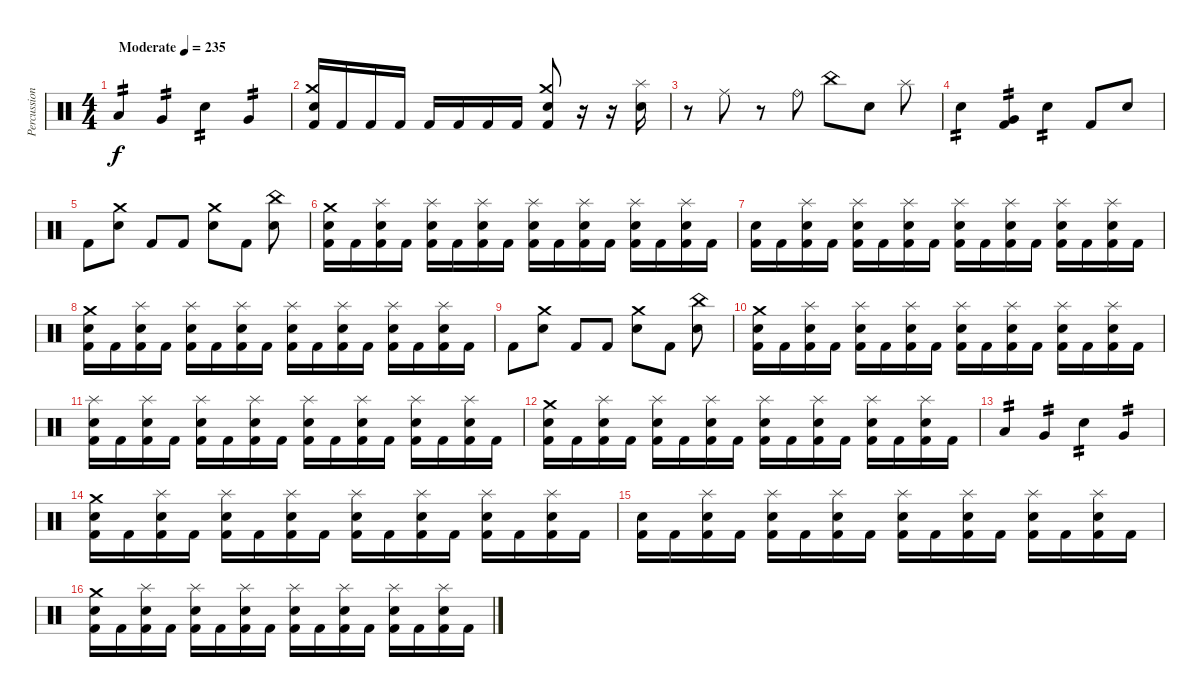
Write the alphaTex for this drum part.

\track ("Percussion" "Percussion") {instrument percussion}
\staff {score}
\articulation defaults
\ts (4 4)
\tempo (235 "Moderate")
\clef neutral
\ks c "Low Tom (hit)".4{tp 2 dy f} "Very Low Tom (hit)".4{tp 2} "Snare (hit) 2".4{tp 2} "Very Low Tom (hit)".4{tp 2}
|
("Crash medium (hit)" "Kick (hit) 2" "Snare (hit) 2").16 "Kick (hit) 2".16 "Kick (hit) 2".16 "Kick (hit) 2".16 "Kick (hit) 2".16 "Kick (hit) 2".16 "Kick (hit) 2".16 "Kick (hit) 2".16 ("Crash medium (hit)" "Snare (hit) 2" "Kick (hit) 2").8 r.16 r.16 ("Snare (hit) 2" "Splash (hit)").16 |
r.8 "Ride (middle)".8 r.8 "Ride (bell)".8 "China (hit)".8 "Snare (hit)".8 "Splash (hit)".8 |
"Snare (hit) 2".4{tp 2} ("Very Low Tom (hit)" "Kick (hit) 2").4{tp 2} "Snare (hit) 2".4{tp 2} "Kick (hit) 2".8 "Snare (hit) 2".8 |
"Kick (hit) 2".8 ("Crash medium (hit)" "Snare (hit) 2").8 "Kick (hit) 2".8 "Kick (hit) 2".8 ("Crash medium (hit)" "Snare (hit) 2").8 "Kick (hit) 2".8 ("China (hit)" "Snare (hit) 2").8 |
("Crash medium (hit)" "Snare (hit) 2" "Kick (hit) 2").16 "Kick (hit) 2".16 ("Splash (hit)" "Snare (hit) 2" "Kick (hit) 2").16 "Kick (hit) 2".16 ("Splash (hit)" "Snare (hit) 2" "Kick (hit) 2").16 "Kick (hit) 2".16 ("Splash (hit)" "Snare (hit) 2" "Kick (hit) 2").16 "Kick (hit) 2".16 ("Splash (hit)" "Snare (hit) 2" "Kick (hit) 2").16 "Kick (hit) 2".16 ("Splash (hit)" "Snare (hit) 2" "Kick (hit) 2").16 "Kick (hit) 2".16 ("Splash (hit)" "Snare (hit) 2" "Kick (hit) 2").16 "Kick (hit) 2".16 ("Splash (hit)" "Snare (hit) 2" "Kick (hit) 2").16 "Kick (hit) 2".16 |
("Snare (hit) 2" "Kick (hit) 2").16 "Kick (hit) 2".16 ("Splash (hit)" "Snare (hit) 2" "Kick (hit) 2").16 "Kick (hit) 2".16 ("Splash (hit)" "Snare (hit) 2" "Kick (hit) 2").16 "Kick (hit) 2".16 ("Splash (hit)" "Snare (hit) 2" "Kick (hit) 2").16 "Kick (hit) 2".16 ("Splash (hit)" "Snare (hit) 2" "Kick (hit) 2").16 "Kick (hit) 2".16 ("Splash (hit)" "Snare (hit) 2" "Kick (hit) 2").16 "Kick (hit) 2".16 ("Splash (hit)" "Snare (hit) 2" "Kick (hit) 2").16 "Kick (hit) 2".16 ("Splash (hit)" "Snare (hit) 2" "Kick (hit) 2").16 "Kick (hit) 2".16 |
("Crash medium (hit)" "Snare (hit) 2" "Kick (hit) 2").16 "Kick (hit) 2".16 ("Splash (hit)" "Snare (hit) 2" "Kick (hit) 2").16 "Kick (hit) 2".16 ("Splash (hit)" "Snare (hit) 2" "Kick (hit) 2").16 "Kick (hit) 2".16 ("Splash (hit)" "Snare (hit) 2" "Kick (hit) 2").16 "Kick (hit) 2".16 ("Splash (hit)" "Snare (hit) 2" "Kick (hit) 2").16 "Kick (hit) 2".16 ("Splash (hit)" "Snare (hit) 2" "Kick (hit) 2").16 "Kick (hit) 2".16 ("Splash (hit)" "Snare (hit) 2" "Kick (hit) 2").16 "Kick (hit) 2".16 ("Splash (hit)" "Snare (hit) 2" "Kick (hit) 2").16 "Kick (hit) 2".16 |
"Kick (hit) 2".8 ("Crash medium (hit)" "Snare (hit) 2").8 "Kick (hit) 2".8 "Kick (hit) 2".8 ("Crash medium (hit)" "Snare (hit) 2").8 "Kick (hit) 2".8 ("China (hit)" "Snare (hit) 2").8 |
("Crash medium (hit)" "Snare (hit) 2" "Kick (hit) 2").16 "Kick (hit) 2".16 ("Splash (hit)" "Snare (hit) 2" "Kick (hit) 2").16 "Kick (hit) 2".16 ("Splash (hit)" "Snare (hit) 2" "Kick (hit) 2").16 "Kick (hit) 2".16 ("Splash (hit)" "Snare (hit) 2" "Kick (hit) 2").16 "Kick (hit) 2".16 ("Splash (hit)" "Snare (hit) 2" "Kick (hit) 2").16 "Kick (hit) 2".16 ("Splash (hit)" "Snare (hit) 2" "Kick (hit) 2").16 "Kick (hit) 2".16 ("Splash (hit)" "Snare (hit) 2" "Kick (hit) 2").16 "Kick (hit) 2".16 ("Splash (hit)" "Snare (hit) 2" "Kick (hit) 2").16 "Kick (hit) 2".16 |
("Splash (hit)" "Snare (hit) 2" "Kick (hit) 2").16 "Kick (hit) 2".16 ("Splash (hit)" "Snare (hit) 2" "Kick (hit) 2").16 "Kick (hit) 2".16 ("Splash (hit)" "Snare (hit) 2" "Kick (hit) 2").16 "Kick (hit) 2".16 ("Splash (hit)" "Snare (hit) 2" "Kick (hit) 2").16 "Kick (hit) 2".16 ("Splash (hit)" "Snare (hit) 2" "Kick (hit) 2").16 "Kick (hit) 2".16 ("Splash (hit)" "Snare (hit) 2" "Kick (hit) 2").16 "Kick (hit) 2".16 ("Splash (hit)" "Snare (hit) 2" "Kick (hit) 2").16 "Kick (hit) 2".16 ("Splash (hit)" "Snare (hit) 2" "Kick (hit) 2").16 "Kick (hit) 2".16 |
("Crash medium (hit)" "Snare (hit) 2" "Kick (hit) 2").16 "Kick (hit) 2".16 ("Splash (hit)" "Snare (hit) 2" "Kick (hit) 2").16 "Kick (hit) 2".16 ("Splash (hit)" "Snare (hit) 2" "Kick (hit) 2").16 "Kick (hit) 2".16 ("Splash (hit)" "Snare (hit) 2" "Kick (hit) 2").16 "Kick (hit) 2".16 ("Splash (hit)" "Snare (hit) 2" "Kick (hit) 2").16 "Kick (hit) 2".16 ("Splash (hit)" "Snare (hit) 2" "Kick (hit) 2").16 "Kick (hit) 2".16 ("Splash (hit)" "Snare (hit) 2" "Kick (hit) 2").16 "Kick (hit) 2".16 ("Splash (hit)" "Snare (hit) 2" "Kick (hit) 2").16 "Kick (hit) 2".16 |
"Low Tom (hit)".4{tp 2} "Very Low Tom (hit)".4{tp 2} "Snare (hit) 2".4{tp 2} "Very Low Tom (hit)".4{tp 2} |
("Crash medium (hit)" "Snare (hit) 2" "Kick (hit) 2").16 "Kick (hit) 2".16 ("Splash (hit)" "Snare (hit) 2" "Kick (hit) 2").16 "Kick (hit) 2".16 ("Splash (hit)" "Snare (hit) 2" "Kick (hit) 2").16 "Kick (hit) 2".16 ("Splash (hit)" "Snare (hit) 2" "Kick (hit) 2").16 "Kick (hit) 2".16 ("Splash (hit)" "Snare (hit) 2" "Kick (hit) 2").16 "Kick (hit) 2".16 ("Splash (hit)" "Snare (hit) 2" "Kick (hit) 2").16 "Kick (hit) 2".16 ("Splash (hit)" "Snare (hit) 2" "Kick (hit) 2").16 "Kick (hit) 2".16 ("Splash (hit)" "Snare (hit) 2" "Kick (hit) 2").16 "Kick (hit) 2".16 |
("Snare (hit) 2" "Kick (hit) 2").16 "Kick (hit) 2".16 ("Splash (hit)" "Snare (hit) 2" "Kick (hit) 2").16 "Kick (hit) 2".16 ("Splash (hit)" "Snare (hit) 2" "Kick (hit) 2").16 "Kick (hit) 2".16 ("Splash (hit)" "Snare (hit) 2" "Kick (hit) 2").16 "Kick (hit) 2".16 ("Splash (hit)" "Snare (hit) 2" "Kick (hit) 2").16 "Kick (hit) 2".16 ("Splash (hit)" "Snare (hit) 2" "Kick (hit) 2").16 "Kick (hit) 2".16 ("Splash (hit)" "Snare (hit) 2" "Kick (hit) 2").16 "Kick (hit) 2".16 ("Splash (hit)" "Snare (hit) 2" "Kick (hit) 2").16 "Kick (hit) 2".16 |
("Crash medium (hit)" "Snare (hit) 2" "Kick (hit) 2").16 "Kick (hit) 2".16 ("Splash (hit)" "Snare (hit) 2" "Kick (hit) 2").16 "Kick (hit) 2".16 ("Splash (hit)" "Snare (hit) 2" "Kick (hit) 2").16 "Kick (hit) 2".16 ("Splash (hit)" "Snare (hit) 2" "Kick (hit) 2").16 "Kick (hit) 2".16 ("Splash (hit)" "Snare (hit) 2" "Kick (hit) 2").16 "Kick (hit) 2".16 ("Splash (hit)" "Snare (hit) 2" "Kick (hit) 2").16 "Kick (hit) 2".16 ("Splash (hit)" "Snare (hit) 2" "Kick (hit) 2").16 "Kick (hit) 2".16 ("Splash (hit)" "Snare (hit) 2" "Kick (hit) 2").16 "Kick (hit) 2".16
